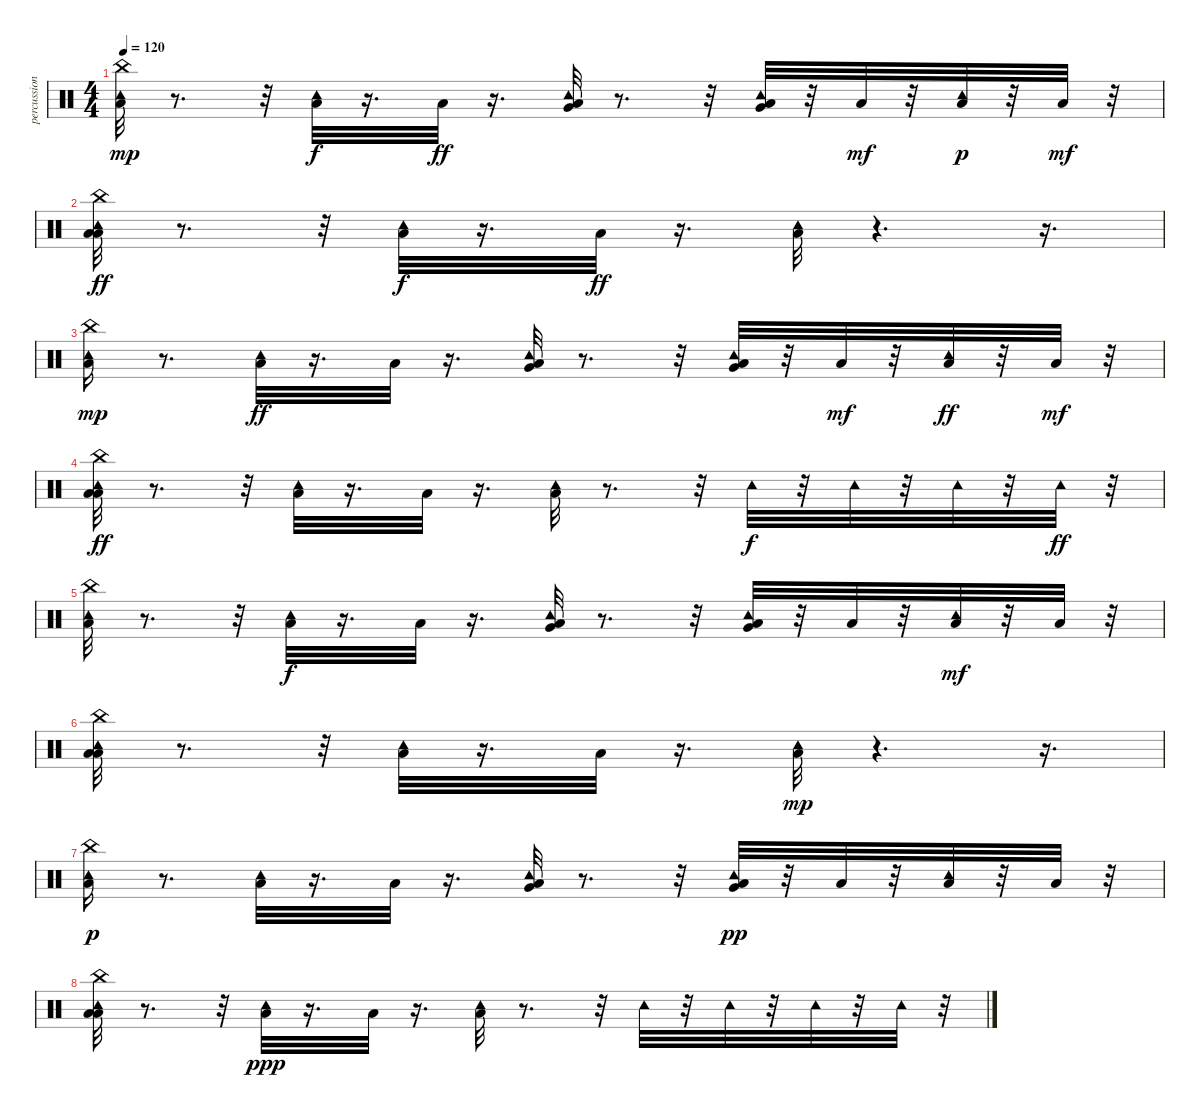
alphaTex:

\track ("percussion" "percussion") {instrument percussion}
\staff {score}
\articulation defaults
\ts (4 4)
\tempo 120
\clef neutral
\ks c
("Low Floor Tom (hit)" "China (hit)" "Tambourine (hit)").32{dy mp} r.8{d} r.32 ("Low Floor Tom (hit)" "Tambourine (hit)").32{dy f} r.16{d} "Low Floor Tom (hit)".32{dy ff} r.16{d} ("Low Floor Tom (hit)" "Very Low Tom (hit)" "Tambourine (hit)").32 r.8{d} r.32 ("Very Low Tom (hit)" "Low Floor Tom (hit)" "Tambourine (hit)").32 r.32 "Low Floor Tom (hit)".32{dy mf} r.32 ("Low Floor Tom (hit)" "Tambourine (hit)").32{dy p} r.32 "Low Floor Tom (hit)".32{dy mf} r.32 |
("Low Floor Tom (hit)" "China (hit)" "Low Floor Tom (hit)" "Tambourine (hit)").32{dy ff} r.8{d} r.32 ("Low Floor Tom (hit)" "Tambourine (hit)").32{dy f} r.16{d} "Low Floor Tom (hit)".32{dy ff} r.16{d} ("Low Floor Tom (hit)" "Tambourine (hit)").32 r.4{d} r.16{d} |
("Low Floor Tom (hit)" "China (hit)" "Tambourine (hit)").16{dy mp} r.8{d} ("Low Floor Tom (hit)" "Tambourine (hit)").32{dy ff} r.16{d} "Low Floor Tom (hit)".32 r.16{d} ("Low Floor Tom (hit)" "Very Low Tom (hit)" "Tambourine (hit)").32 r.8{d} r.32 ("Very Low Tom (hit)" "Low Floor Tom (hit)" "Tambourine (hit)").32 r.32 "Low Floor Tom (hit)".32{dy mf} r.32 ("Low Floor Tom (hit)" "Tambourine (hit)").32{dy ff} r.32 "Low Floor Tom (hit)".32{dy mf} r.32 |
("Low Floor Tom (hit)" "China (hit)" "Low Floor Tom (hit)" "Tambourine (hit)").32{dy ff} r.8{d} r.32 ("Low Floor Tom (hit)" "Tambourine (hit)").32 r.16{d} "Low Floor Tom (hit)".32 r.16{d} ("Low Floor Tom (hit)" "Tambourine (hit)").32 r.8{d} r.32 "Tambourine (hit)".32{dy f} r.32 "Tambourine (hit)".32 r.32 "Tambourine (hit)".32 r.32 "Tambourine (hit)".32{dy ff} r.32 |
("Low Floor Tom (hit)" "China (hit)" "Tambourine (hit)").32 r.8{d} r.32 ("Low Floor Tom (hit)" "Tambourine (hit)").32{dy f} r.16{d} "Low Floor Tom (hit)".32 r.16{d} ("Low Floor Tom (hit)" "Very Low Tom (hit)" "Tambourine (hit)").32 r.8{d} r.32 ("Very Low Tom (hit)" "Low Floor Tom (hit)" "Tambourine (hit)").32 r.32 "Low Floor Tom (hit)".32 r.32 ("Low Floor Tom (hit)" "Tambourine (hit)").32{dy mf} r.32 "Low Floor Tom (hit)".32 r.32 |
("Low Floor Tom (hit)" "China (hit)" "Low Floor Tom (hit)" "Tambourine (hit)").32 r.8{d} r.32 ("Low Floor Tom (hit)" "Tambourine (hit)").32 r.16{d} "Low Floor Tom (hit)".32 r.16{d} ("Low Floor Tom (hit)" "Tambourine (hit)").32{dy mp} r.4{d} r.16{d} |
("Low Floor Tom (hit)" "China (hit)" "Tambourine (hit)").16{dy p} r.8{d} ("Low Floor Tom (hit)" "Tambourine (hit)").32 r.16{d} "Low Floor Tom (hit)".32 r.16{d} ("Low Floor Tom (hit)" "Very Low Tom (hit)" "Tambourine (hit)").32 r.8{d} r.32 ("Very Low Tom (hit)" "Low Floor Tom (hit)" "Tambourine (hit)").32{dy pp} r.32 "Low Floor Tom (hit)".32 r.32 ("Low Floor Tom (hit)" "Tambourine (hit)").32 r.32 "Low Floor Tom (hit)".32 r.32 |
("Low Floor Tom (hit)" "China (hit)" "Low Floor Tom (hit)" "Tambourine (hit)").32 r.8{d} r.32 ("Low Floor Tom (hit)" "Tambourine (hit)").32{dy ppp} r.16{d} "Low Floor Tom (hit)".32 r.16{d} ("Low Floor Tom (hit)" "Tambourine (hit)").32 r.8{d} r.32 "Tambourine (hit)".32 r.32 "Tambourine (hit)".32 r.32 "Tambourine (hit)".32 r.32 "Tambourine (hit)".32 r.32
